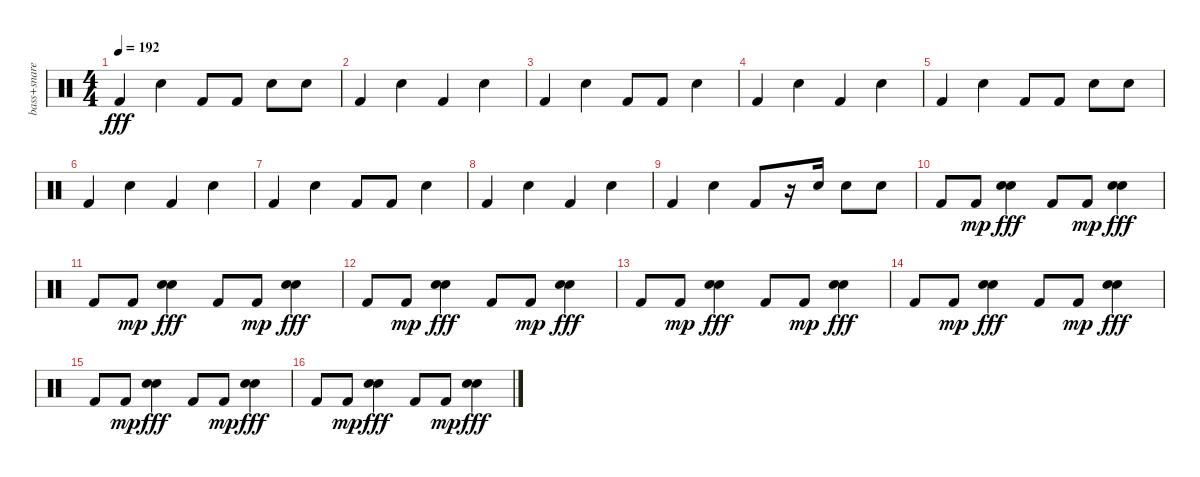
\track ("bass+snare" "bass+snare") {instrument percussion}
\staff {score}
\articulation defaults
\ts (4 4)
\tempo 192
\clef neutral
\ks c "Kick (hit) 2".4{dy fff} "Snare (hit) 2".4 "Kick (hit) 2".8 "Kick (hit) 2".8 "Snare (hit) 2".8 "Snare (hit) 2".8
|
"Kick (hit) 2".4 "Snare (hit) 2".4 "Kick (hit) 2".4 "Snare (hit) 2".4 |
"Kick (hit) 2".4 "Snare (hit) 2".4 "Kick (hit) 2".8 "Kick (hit) 2".8 "Snare (hit) 2".4 |
"Kick (hit) 2".4 "Snare (hit) 2".4 "Kick (hit) 2".4 "Snare (hit) 2".4 |
"Kick (hit) 2".4 "Snare (hit) 2".4 "Kick (hit) 2".8 "Kick (hit) 2".8 "Snare (hit) 2".8 "Snare (hit) 2".8 |
"Kick (hit) 2".4 "Snare (hit) 2".4 "Kick (hit) 2".4 "Snare (hit) 2".4 |
"Kick (hit) 2".4 "Snare (hit) 2".4 "Kick (hit) 2".8 "Kick (hit) 2".8 "Snare (hit) 2".4 |
"Kick (hit) 2".4 "Snare (hit) 2".4 "Kick (hit) 2".4 "Snare (hit) 2".4 |
"Kick (hit) 2".4 "Snare (hit) 2".4 "Kick (hit) 2".8 r.16 "Snare (hit) 2".16 "Snare (hit) 2".8 "Snare (hit) 2".8 |
"Kick (hit) 2".8 "Kick (hit) 2".8{dy mp} ("Electric Snare (hit)" "Electric Snare (hit)").4{dy fff} "Kick (hit) 2".8 "Kick (hit) 2".8{dy mp} ("Electric Snare (hit)" "Electric Snare (hit)").4{dy fff} |
"Kick (hit) 2".8 "Kick (hit) 2".8{dy mp} ("Electric Snare (hit)" "Electric Snare (hit)").4{dy fff} "Kick (hit) 2".8 "Kick (hit) 2".8{dy mp} ("Electric Snare (hit)" "Electric Snare (hit)").4{dy fff} |
"Kick (hit) 2".8 "Kick (hit) 2".8{dy mp} ("Electric Snare (hit)" "Electric Snare (hit)").4{dy fff} "Kick (hit) 2".8 "Kick (hit) 2".8{dy mp} ("Electric Snare (hit)" "Electric Snare (hit)").4{dy fff} |
"Kick (hit) 2".8 "Kick (hit) 2".8{dy mp} ("Electric Snare (hit)" "Electric Snare (hit)").4{dy fff} "Kick (hit) 2".8 "Kick (hit) 2".8{dy mp} ("Electric Snare (hit)" "Electric Snare (hit)").4{dy fff} |
"Kick (hit) 2".8 "Kick (hit) 2".8{dy mp} ("Electric Snare (hit)" "Electric Snare (hit)").4{dy fff} "Kick (hit) 2".8 "Kick (hit) 2".8{dy mp} ("Electric Snare (hit)" "Electric Snare (hit)").4{dy fff} |
"Kick (hit) 2".8 "Kick (hit) 2".8{dy mp} ("Electric Snare (hit)" "Electric Snare (hit)").4{dy fff} "Kick (hit) 2".8 "Kick (hit) 2".8{dy mp} ("Electric Snare (hit)" "Electric Snare (hit)").4{dy fff} |
"Kick (hit) 2".8 "Kick (hit) 2".8{dy mp} ("Electric Snare (hit)" "Electric Snare (hit)").4{dy fff} "Kick (hit) 2".8 "Kick (hit) 2".8{dy mp} ("Electric Snare (hit)" "Electric Snare (hit)").4{dy fff}
